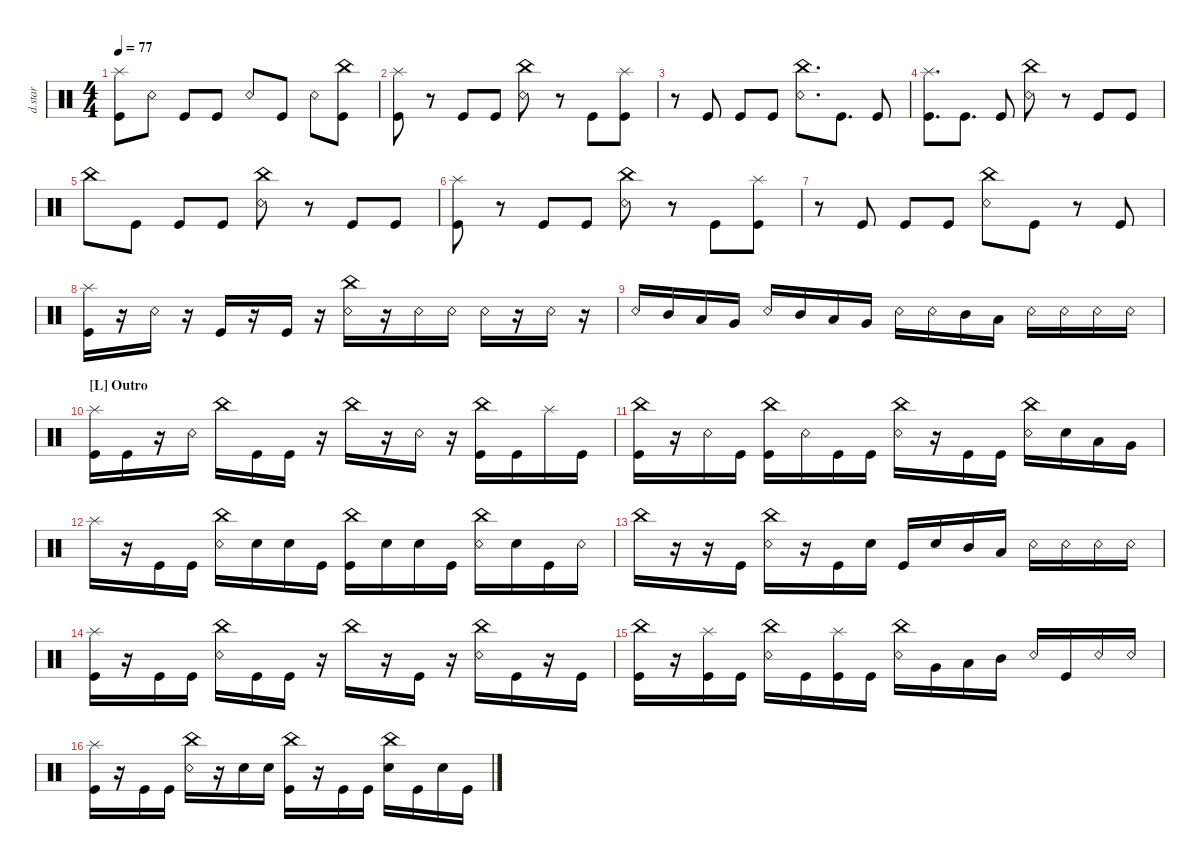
\defaultSystemsLayout 4
\hideDynamics
\bracketExtendMode nobrackets
\otherSystemsTrackNameOrientation horizontal
\track ("Drumkit Star" "d.star") {instrument percussion}
\staff {score}
\articulation defaults
\ts (4 4)
\tempo 77
\clef neutral
\ks c
("Kick (hit)" "Splash (hit)").8{dy ff} "Snare (rim shot)".8 "Kick (hit)".8 "Kick (hit)".8 "Snare (rim shot)".8 "Kick (hit)".8 "Snare (rim shot)".8 ("Kick (hit)" "China (hit)").8 |
("Kick (hit)" "Splash (hit)").8 r.8 "Kick (hit)".8 "Kick (hit)".8 ("Snare (rim shot)" "China (hit)").8 r.8 "Kick (hit)".8 ("Kick (hit)" "Splash (hit)").8 |
r.8 "Kick (hit)".8 "Kick (hit)".8 "Kick (hit)".8 ("Snare (rim shot)" "China (hit)").8{d} "Kick (hit)".8{d} "Kick (hit)".8 |
("Kick (hit)" "Splash (hit)").8{d} "Kick (hit)".8{d} "Kick (hit)".8 ("Snare (rim shot)" "China (hit)").8 r.8 "Kick (hit)".8 "Kick (hit)".8 |
"China (hit)".8 "Kick (hit)".8 "Kick (hit)".8 "Kick (hit)".8 ("Snare (rim shot)" "China (hit)").8 r.8 "Kick (hit)".8 "Kick (hit)".8 |
("Kick (hit)" "Splash (hit)").8 r.8 "Kick (hit)".8 "Kick (hit)".8 ("Snare (rim shot)" "China (hit)").8 r.8 "Kick (hit)".8 ("Kick (hit)" "Splash (hit)").8 |
r.8 "Kick (hit)".8 "Kick (hit)".8 "Kick (hit)".8 ("Snare (rim shot)" "China (hit)").8 "Kick (hit)".8 r.8 "Kick (hit)".8 |
("Kick (hit)" "Splash (hit)").16 r.16 "Snare (rim shot)".16 r.16 "Kick (hit)".16 r.16 "Kick (hit)".16 r.16 ("Snare (rim shot)" "China (hit)").16 r.16 "Snare (rim shot)".16 "Snare (rim shot)".16 "Snare (rim shot)".16 r.16 "Snare (rim shot)".16 r.16 |
"Snare (rim shot)".16 "Mid Tom (hit)".16 "Low Tom (hit)".16 "Very Low Tom (hit)".16 "Snare (rim shot)".16 "Mid Tom (hit)".16 "Low Tom (hit)".16 "Very Low Tom (hit)".16 "Snare (rim shot)".16 "Snare (rim shot)".16 "Mid Tom (hit)".16 "Low Tom (hit)".16 "Snare (rim shot)".16 "Snare (rim shot)".16 "Snare (rim shot)".16 "Snare (rim shot)".16 |
\section ("L" "Outro")
("Kick (hit)" "Splash (hit)").16 "Kick (hit)".16 r.16 "Snare (rim shot)".16 "China (hit)".16 "Kick (hit)".16 "Kick (hit)".16 r.16 "China (hit)".16 r.16 "Snare (rim shot)".16 r.16 ("Kick (hit)" "China (hit)").16 "Kick (hit)".16 "Splash (hit)".16 "Kick (hit)".16 |
("China (hit)" "Kick (hit)").16 r.16 "Snare (rim shot)".16 "Kick (hit)".16 ("Kick (hit)" "China (hit)").16 "Snare (rim shot)".16 "Kick (hit)".16 "Kick (hit)".16 ("Snare (rim shot)" "China (hit)").16 r.16 "Kick (hit)".16 "Kick (hit)".16 ("Snare (rim shot)" "China (hit)").16 "Snare (hit) 2".16 "Low Tom (hit)".16 "Very Low Tom (hit)".16 |
"Splash (hit)".16 r.16 "Kick (hit)".16 "Kick (hit)".16 ("Snare (rim shot)" "China (hit)").16 "Snare (hit) 2".16{dy mp} "Snare (hit) 2".16 "Kick (hit)".16{dy ff} ("Kick (hit)" "China (hit)").16 "Snare (hit) 2".16{dy mp} "Snare (hit) 2".16 "Kick (hit)".16{dy ff} ("Snare (rim shot)" "China (hit)").16 "Snare (hit) 2".16{dy mp} "Kick (hit)".16{dy ff} "Snare (rim shot)".16 |
"China (hit)".16 r.16 r.16 "Kick (hit)".16 ("Snare (rim shot)" "China (hit)").16 r.16 "Kick (hit)".16 "Snare (hit) 2".16{dy mp} "Kick (hit)".16{dy ff} "Snare (hit) 2".16{dy mp} "Mid Tom (hit)".16{dy ff} "Low Tom (hit)".16 "Snare (rim shot)".16 "Snare (rim shot)".16 "Snare (rim shot)".16 "Snare (rim shot)".16 |
("Kick (hit)" "Splash (hit)").16 r.16 "Kick (hit)".16 "Kick (hit)".16 ("Snare (rim shot)" "China (hit)").16 "Kick (hit)".16 "Kick (hit)".16 r.16 "China (hit)".16 r.16 "Kick (hit)".16 r.16 ("Snare (rim shot)" "China (hit)").16 "Kick (hit)".16 r.16 "Kick (hit)".16 |
("Kick (hit)" "China (hit)").16 r.16 ("Kick (hit)" "Splash (hit)").16 "Kick (hit)".16 ("Snare (rim shot)" "China (hit)").16 "Kick (hit)".16 ("Kick (hit)" "Splash (hit)").16 "Kick (hit)".16 ("Snare (rim shot)" "China (hit)").16 "Very Low Tom (hit)".16 "Low Tom (hit)".16 "Mid Tom (hit)".16 "Snare (rim shot)".16 "Kick (hit)".16 "Snare (rim shot)".16 "Snare (rim shot)".16 |
("Kick (hit)" "Splash (hit)").16 r.16 "Kick (hit)".16 "Kick (hit)".16 ("Snare (rim shot)" "China (hit)").16 r.16 "Snare (hit) 2".16{dy mp} "Snare (hit) 2".16 ("Kick (hit)" "China (hit)").16{dy ff} r.16 "Kick (hit)".16 "Kick (hit)".16 ("Snare (hit) 2" "China (hit)").16 "Kick (hit)".16 "Snare (hit) 2".16{dy mp} "Kick (hit)".16{dy ff}
